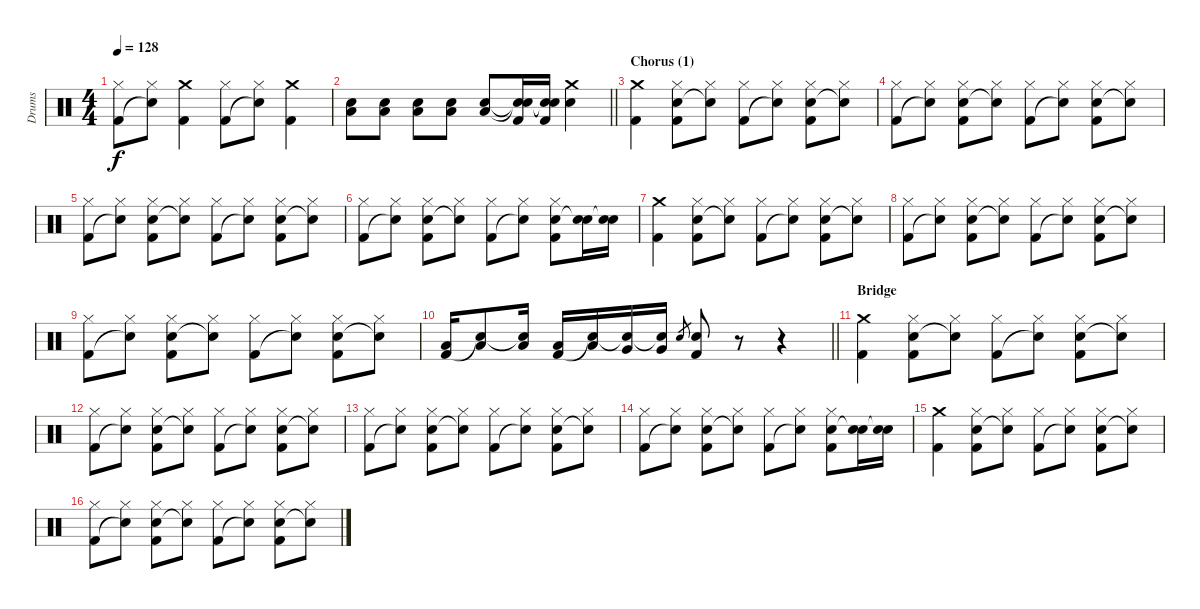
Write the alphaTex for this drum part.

\track ("Drums" "Drums") {instrument percussion}
\staff {score}
\articulation defaults
\ts (4 4)
\tempo 128
\clef neutral
\ks aminor
("Hi-Hat (closed)" "Kick (hit) 2").8{dy f} ("Hi-Hat (closed)" "Snare (hit)"{t}).8 ("Crash medium (hit)" "Kick (hit) 2").4 ("Hi-Hat (closed)" "Kick (hit) 2").8 ("Hi-Hat (closed)" "Snare (hit)"{t}).8 ("Crash medium (hit)" "Kick (hit) 2").4 |
\barLineRight lightlight
("Electric Snare (hit)" "Low Tom (hit)").8 ("Electric Snare (hit)" "Low Tom (hit)").8 ("Electric Snare (hit)" "Low Tom (hit)").8 ("Electric Snare (hit)" "Low Tom (hit)").8 ("Electric Snare (hit)" "Low Tom (hit)").8 ("Snare (hit)"{t} "Snare (hit)"{t} "Kick (hit) 2").16 ("Snare (hit)"{t} "Snare (hit)"{t} "Kick (hit) 2").16 ("Crash medium (hit)" "Electric Snare (hit)").4 |
\section ("" "Chorus (1)")
("Crash medium (hit)" "Kick (hit) 2").4 ("Hi-Hat (closed)" "Electric Snare (hit)" "Kick (hit) 2").8 ("Hi-Hat (closed)" "Snare (hit)"{t}).8 ("Hi-Hat (closed)" "Kick (hit) 2").8 ("Hi-Hat (closed)" "Snare (hit)"{t}).8 ("Hi-Hat (closed)" "Electric Snare (hit)" "Kick (hit) 2").8 ("Hi-Hat (closed)" "Snare (hit)"{t}).8 |
("Hi-Hat (closed)" "Kick (hit) 2").8 ("Hi-Hat (closed)" "Snare (hit)"{t}).8 ("Hi-Hat (closed)" "Electric Snare (hit)" "Kick (hit) 2").8 ("Hi-Hat (closed)" "Snare (hit)"{t}).8 ("Hi-Hat (closed)" "Kick (hit) 2").8 ("Hi-Hat (closed)" "Snare (hit)"{t}).8 ("Hi-Hat (closed)" "Electric Snare (hit)" "Kick (hit) 2").8 ("Hi-Hat (closed)" "Snare (hit)"{t}).8 |
("Hi-Hat (closed)" "Kick (hit) 2").8 ("Hi-Hat (closed)" "Snare (hit)"{t}).8 ("Hi-Hat (closed)" "Electric Snare (hit)" "Kick (hit) 2").8 ("Hi-Hat (closed)" "Snare (hit)"{t}).8 ("Hi-Hat (closed)" "Kick (hit) 2").8 ("Hi-Hat (closed)" "Snare (hit)"{t}).8 ("Hi-Hat (closed)" "Electric Snare (hit)" "Kick (hit) 2").8 ("Hi-Hat (closed)" "Snare (hit)"{t}).8 |
("Hi-Hat (closed)" "Kick (hit) 2").8 ("Hi-Hat (closed)" "Snare (hit)"{t}).8 ("Hi-Hat (closed)" "Electric Snare (hit)" "Kick (hit) 2").8 ("Hi-Hat (closed)" "Snare (hit)"{t}).8 ("Hi-Hat (closed)" "Kick (hit) 2").8 ("Hi-Hat (closed)" "Snare (hit)"{t}).8 ("Hi-Hat (closed)" "Electric Snare (hit)" "Kick (hit) 2").8 ("Electric Snare (hit)" "Snare (hit)"{t}).16 ("Electric Snare (hit)" "Snare (hit)"{t}).16 |
("Crash medium (hit)" "Kick (hit) 2").4 ("Hi-Hat (closed)" "Electric Snare (hit)" "Kick (hit) 2").8 ("Hi-Hat (closed)" "Snare (hit)"{t}).8 ("Hi-Hat (closed)" "Kick (hit) 2").8 ("Hi-Hat (closed)" "Snare (hit)"{t}).8 ("Hi-Hat (closed)" "Electric Snare (hit)" "Kick (hit) 2").8 ("Hi-Hat (closed)" "Snare (hit)"{t}).8 |
("Hi-Hat (closed)" "Kick (hit) 2").8 ("Hi-Hat (closed)" "Snare (hit)"{t}).8 ("Hi-Hat (closed)" "Electric Snare (hit)" "Kick (hit) 2").8 ("Hi-Hat (closed)" "Snare (hit)"{t}).8 ("Hi-Hat (closed)" "Kick (hit) 2").8 ("Hi-Hat (closed)" "Snare (hit)"{t}).8 ("Hi-Hat (closed)" "Electric Snare (hit)" "Kick (hit) 2").8 ("Hi-Hat (closed)" "Snare (hit)"{t}).8 |
("Hi-Hat (closed)" "Kick (hit) 2").8 ("Hi-Hat (closed)" "Snare (hit)"{t}).8 ("Hi-Hat (closed)" "Electric Snare (hit)" "Kick (hit) 2").8 ("Hi-Hat (closed)" "Snare (hit)"{t}).8 ("Hi-Hat (closed)" "Kick (hit) 2").8 ("Hi-Hat (closed)" "Snare (hit)"{t}).8 ("Hi-Hat (closed)" "Electric Snare (hit)" "Kick (hit) 2").8 ("Hi-Hat (closed)" "Snare (hit)"{t}).8 |
\barLineRight lightlight
("Low Tom (hit)" "Kick (hit) 2").16 ("Low Tom (hit)" "Snare (hit)"{t}).8 ("Low Tom (hit)" "Snare (hit)"{t}).16 ("Low Tom (hit)" "Kick (hit) 2").16 ("Low Tom (hit)" "Snare (hit)"{t}).16 ("Very Low Tom (hit)" "Snare (hit)"{t}).16 ("Very Low Tom (hit)" "Snare (hit)"{t}).16 "Electric Snare (hit)".8{gr} ("Electric Snare (hit)" "Kick (hit) 2").8 r.8 r.4 |
\section ("" "Bridge")
("Crash medium (hit)" "Kick (hit) 2").4 ("Hi-Hat (closed)" "Electric Snare (hit)" "Kick (hit) 2").8 ("Hi-Hat (closed)" "Snare (hit)"{t}).8 ("Hi-Hat (closed)" "Kick (hit) 2").8 ("Hi-Hat (closed)" "Snare (hit)"{t}).8 ("Hi-Hat (closed)" "Electric Snare (hit)" "Kick (hit) 2").8 ("Hi-Hat (closed)" "Snare (hit)"{t}).8 |
("Hi-Hat (closed)" "Kick (hit) 2").8 ("Hi-Hat (closed)" "Snare (hit)"{t}).8 ("Hi-Hat (closed)" "Electric Snare (hit)" "Kick (hit) 2").8 ("Hi-Hat (closed)" "Snare (hit)"{t}).8 ("Hi-Hat (closed)" "Kick (hit) 2").8 ("Hi-Hat (closed)" "Snare (hit)"{t}).8 ("Hi-Hat (closed)" "Electric Snare (hit)" "Kick (hit) 2").8 ("Hi-Hat (closed)" "Snare (hit)"{t}).8 |
("Hi-Hat (closed)" "Kick (hit) 2").8 ("Hi-Hat (closed)" "Snare (hit)"{t}).8 ("Hi-Hat (closed)" "Electric Snare (hit)" "Kick (hit) 2").8 ("Hi-Hat (closed)" "Snare (hit)"{t}).8 ("Hi-Hat (closed)" "Kick (hit) 2").8 ("Hi-Hat (closed)" "Snare (hit)"{t}).8 ("Hi-Hat (closed)" "Electric Snare (hit)" "Kick (hit) 2").8 ("Hi-Hat (closed)" "Snare (hit)"{t}).8 |
("Hi-Hat (closed)" "Kick (hit) 2").8 ("Hi-Hat (closed)" "Snare (hit)"{t}).8 ("Hi-Hat (closed)" "Electric Snare (hit)" "Kick (hit) 2").8 ("Hi-Hat (closed)" "Snare (hit)"{t}).8 ("Hi-Hat (closed)" "Kick (hit) 2").8 ("Hi-Hat (closed)" "Snare (hit)"{t}).8 ("Hi-Hat (closed)" "Electric Snare (hit)" "Kick (hit) 2").8 ("Electric Snare (hit)" "Snare (hit)"{t}).16 ("Electric Snare (hit)" "Snare (hit)"{t}).16 |
("Crash medium (hit)" "Kick (hit) 2").4 ("Hi-Hat (closed)" "Electric Snare (hit)" "Kick (hit) 2").8 ("Hi-Hat (closed)" "Snare (hit)"{t}).8 ("Hi-Hat (closed)" "Kick (hit) 2").8 ("Hi-Hat (closed)" "Snare (hit)"{t}).8 ("Hi-Hat (closed)" "Electric Snare (hit)" "Kick (hit) 2").8 ("Hi-Hat (closed)" "Snare (hit)"{t}).8 |
("Hi-Hat (closed)" "Kick (hit) 2").8 ("Hi-Hat (closed)" "Snare (hit)"{t}).8 ("Hi-Hat (closed)" "Electric Snare (hit)" "Kick (hit) 2").8 ("Hi-Hat (closed)" "Snare (hit)"{t}).8 ("Hi-Hat (closed)" "Kick (hit) 2").8 ("Hi-Hat (closed)" "Snare (hit)"{t}).8 ("Hi-Hat (closed)" "Electric Snare (hit)" "Kick (hit) 2").8 ("Hi-Hat (closed)" "Snare (hit)"{t}).8
